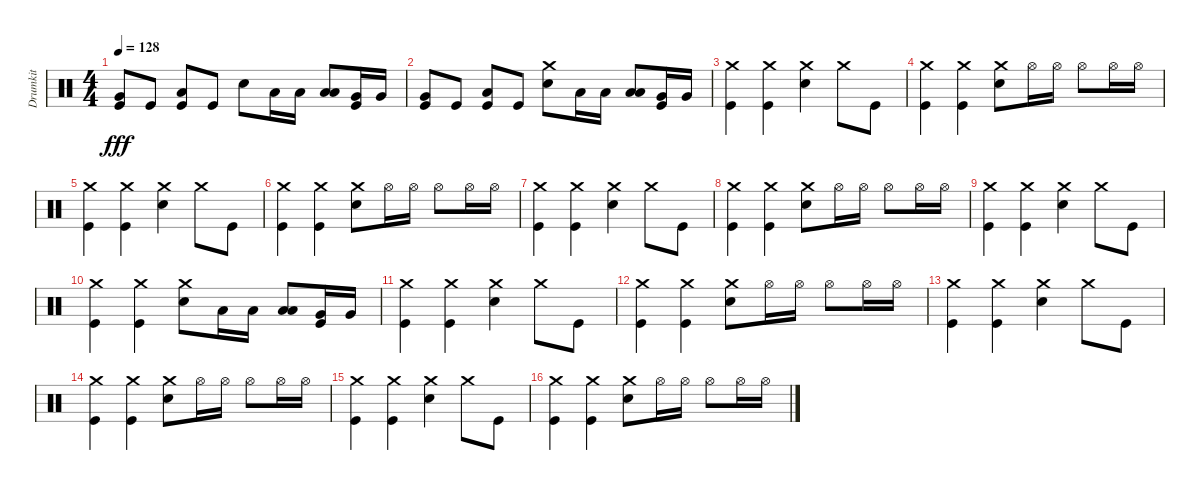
\track ("Drumkit" "Drumkit") {instrument percussion}
\staff {score}
\articulation defaults
\ts (4 4)
\tempo 128
\clef neutral
\ks c
("Kick (hit)" "Very Low Tom (hit)").8{dy fff} "Kick (hit)".8 ("Low Floor Tom (hit)" "Kick (hit)").8 "Kick (hit)".8 "Snare (hit) 2".8 "Low Tom (hit)".16 "Low Tom (hit)".16 ("Low Tom (hit)" "Low Floor Tom (hit)").8 ("Very Low Tom (hit)" "Kick (hit)").16 "Very Low Tom (hit)".16 |
("Kick (hit)" "Very Low Tom (hit)").8 "Kick (hit)".8 ("Low Floor Tom (hit)" "Kick (hit)").8 "Kick (hit)".8 ("Snare (hit) 2" "Crash medium (hit)").8 "Low Tom (hit)".16 "Low Tom (hit)".16 ("Low Tom (hit)" "Low Floor Tom (hit)").8 ("Very Low Tom (hit)" "Kick (hit)").16 "Very Low Tom (hit)".16 |
("Crash medium (hit)" "Kick (hit)").4 ("Crash medium (hit)" "Kick (hit)").4 ("Crash medium (hit)" "Snare (hit) 2").4 "Crash medium (hit)".8 "Kick (hit)".8 |
("Crash medium (hit)" "Kick (hit)").4 ("Crash medium (hit)" "Kick (hit)").4 ("Crash medium (hit)" "Snare (hit) 2").8 "Hi-Hat (open)".16 "Hi-Hat (open)".16 "Hi-Hat (open)".8 "Hi-Hat (open)".16 "Hi-Hat (open)".16 |
("Crash medium (hit)" "Kick (hit)").4 ("Crash medium (hit)" "Kick (hit)").4 ("Crash medium (hit)" "Snare (hit) 2").4 "Crash medium (hit)".8 "Kick (hit)".8 |
("Crash medium (hit)" "Kick (hit)").4 ("Crash medium (hit)" "Kick (hit)").4 ("Crash medium (hit)" "Snare (hit) 2").8 "Hi-Hat (open)".16 "Hi-Hat (open)".16 "Hi-Hat (open)".8 "Hi-Hat (open)".16 "Hi-Hat (open)".16 |
("Crash medium (hit)" "Kick (hit)").4 ("Crash medium (hit)" "Kick (hit)").4 ("Crash medium (hit)" "Snare (hit) 2").4 "Crash medium (hit)".8 "Kick (hit)".8 |
("Crash medium (hit)" "Kick (hit)").4 ("Crash medium (hit)" "Kick (hit)").4 ("Crash medium (hit)" "Snare (hit) 2").8 "Hi-Hat (open)".16 "Hi-Hat (open)".16 "Hi-Hat (open)".8 "Hi-Hat (open)".16 "Hi-Hat (open)".16 |
("Crash medium (hit)" "Kick (hit)").4 ("Crash medium (hit)" "Kick (hit)").4 ("Crash medium (hit)" "Snare (hit) 2").4 "Crash medium (hit)".8 "Kick (hit)".8 |
("Crash medium (hit)" "Kick (hit)").4 ("Crash medium (hit)" "Kick (hit)").4 ("Crash medium (hit)" "Snare (hit) 2").8 "Low Tom (hit)".16 "Low Tom (hit)".16 ("Low Tom (hit)" "Low Floor Tom (hit)").8 ("Very Low Tom (hit)" "Kick (hit)").16 "Very Low Tom (hit)".16 |
("Crash medium (hit)" "Kick (hit)").4 ("Crash medium (hit)" "Kick (hit)").4 ("Crash medium (hit)" "Snare (hit) 2").4 "Crash medium (hit)".8 "Kick (hit)".8 |
("Crash medium (hit)" "Kick (hit)").4 ("Crash medium (hit)" "Kick (hit)").4 ("Crash medium (hit)" "Snare (hit) 2").8 "Hi-Hat (open)".16 "Hi-Hat (open)".16 "Hi-Hat (open)".8 "Hi-Hat (open)".16 "Hi-Hat (open)".16 |
("Crash medium (hit)" "Kick (hit)").4 ("Crash medium (hit)" "Kick (hit)").4 ("Crash medium (hit)" "Snare (hit) 2").4 "Crash medium (hit)".8 "Kick (hit)".8 |
("Crash medium (hit)" "Kick (hit)").4 ("Crash medium (hit)" "Kick (hit)").4 ("Crash medium (hit)" "Snare (hit) 2").8 "Hi-Hat (open)".16 "Hi-Hat (open)".16 "Hi-Hat (open)".8 "Hi-Hat (open)".16 "Hi-Hat (open)".16 |
("Crash medium (hit)" "Kick (hit)").4 ("Crash medium (hit)" "Kick (hit)").4 ("Crash medium (hit)" "Snare (hit) 2").4 "Crash medium (hit)".8 "Kick (hit)".8 |
("Crash medium (hit)" "Kick (hit)").4 ("Crash medium (hit)" "Kick (hit)").4 ("Crash medium (hit)" "Snare (hit) 2").8 "Hi-Hat (open)".16 "Hi-Hat (open)".16 "Hi-Hat (open)".8 "Hi-Hat (open)".16 "Hi-Hat (open)".16
